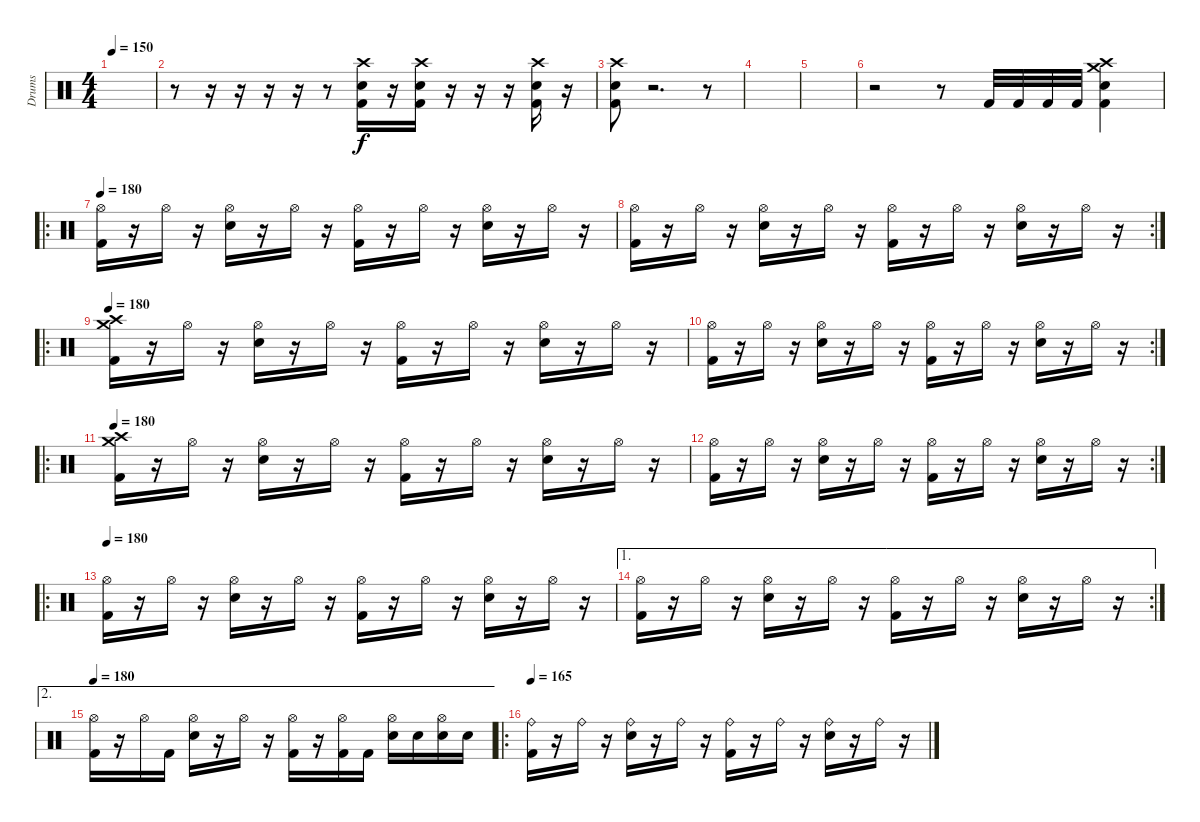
\track ("Drums" "Drums") {instrument percussion}
\staff {score}
\articulation defaults
\ts (4 4)
\tempo 150
\clef neutral
\ks c
|
r.8 r.16 r.16 r.16 r.16 r.8 ("Crash high (hit)" "Snare (hit) 2" "Kick (hit) 2").16 r.16 ("Crash high (hit)" "Snare (hit) 2" "Kick (hit) 2").16 r.16 r.16 r.16 ("Crash high (hit)" "Snare (hit) 2" "Kick (hit) 2").16 r.16 |
("Crash high (hit)" "Snare (hit) 2" "Kick (hit) 2").8 r.2{d} r.8 |
|
|
r.2 r.8 "Kick (hit) 2".32 "Kick (hit) 2".32 "Kick (hit) 2".32 "Kick (hit) 2".32 ("Crash medium (hit)" "Crash high (hit)" "Snare (hit) 2" "Kick (hit) 2").4 |
\ro
\tempo 180
("Hi-Hat (open)" "Kick (hit) 2").16 r.16 "Hi-Hat (open)".16 r.16 ("Hi-Hat (open)" "Snare (hit) 2").16 r.16 "Hi-Hat (open)".16 r.16 ("Hi-Hat (open)" "Kick (hit) 2").16 r.16 "Hi-Hat (open)".16 r.16 ("Hi-Hat (open)" "Snare (hit) 2").16 r.16 "Hi-Hat (open)".16 r.16 |
\rc 2
("Hi-Hat (open)" "Kick (hit) 2").16 r.16 "Hi-Hat (open)".16 r.16 ("Hi-Hat (open)" "Snare (hit) 2").16 r.16 "Hi-Hat (open)".16 r.16 ("Hi-Hat (open)" "Kick (hit) 2").16 r.16 "Hi-Hat (open)".16 r.16 ("Hi-Hat (open)" "Snare (hit) 2").16 r.16 "Hi-Hat (open)".16 r.16 |
\ro
\tempo 180
("Crash medium (hit)" "Crash high (hit)" "Kick (hit) 2").16 r.16 "Hi-Hat (open)".16 r.16 ("Hi-Hat (open)" "Snare (hit) 2").16 r.16 "Hi-Hat (open)".16 r.16 ("Hi-Hat (open)" "Kick (hit) 2").16 r.16 "Hi-Hat (open)".16 r.16 ("Hi-Hat (open)" "Snare (hit) 2").16 r.16 "Hi-Hat (open)".16 r.16 |
\rc 2
("Hi-Hat (open)" "Kick (hit) 2").16 r.16 "Hi-Hat (open)".16 r.16 ("Hi-Hat (open)" "Snare (hit) 2").16 r.16 "Hi-Hat (open)".16 r.16 ("Hi-Hat (open)" "Kick (hit) 2").16 r.16 "Hi-Hat (open)".16 r.16 ("Hi-Hat (open)" "Snare (hit) 2").16 r.16 "Hi-Hat (open)".16 r.16 |
\ro
\tempo 180
("Crash high (hit)" "Crash medium (hit)" "Kick (hit) 2").16 r.16 "Hi-Hat (open)".16 r.16 ("Hi-Hat (open)" "Snare (hit) 2").16 r.16 "Hi-Hat (open)".16 r.16 ("Hi-Hat (open)" "Kick (hit) 2").16 r.16 "Hi-Hat (open)".16 r.16 ("Hi-Hat (open)" "Snare (hit) 2").16 r.16 "Hi-Hat (open)".16 r.16 |
\rc 2
("Hi-Hat (open)" "Kick (hit) 2").16 r.16 "Hi-Hat (open)".16 r.16 ("Hi-Hat (open)" "Snare (hit) 2").16 r.16 "Hi-Hat (open)".16 r.16 ("Hi-Hat (open)" "Kick (hit) 2").16 r.16 "Hi-Hat (open)".16 r.16 ("Hi-Hat (open)" "Snare (hit) 2").16 r.16 "Hi-Hat (open)".16 r.16 |
\ro
\tempo 180
("Hi-Hat (open)" "Kick (hit) 2").16 r.16 "Hi-Hat (open)".16 r.16 ("Hi-Hat (open)" "Snare (hit) 2").16 r.16 "Hi-Hat (open)".16 r.16 ("Hi-Hat (open)" "Kick (hit) 2").16 r.16 "Hi-Hat (open)".16 r.16 ("Hi-Hat (open)" "Snare (hit) 2").16 r.16 "Hi-Hat (open)".16 r.16 |
\ae 1
\rc 2
("Hi-Hat (open)" "Kick (hit) 2").16 r.16 "Hi-Hat (open)".16 r.16 ("Hi-Hat (open)" "Snare (hit) 2").16 r.16 "Hi-Hat (open)".16 r.16 ("Hi-Hat (open)" "Kick (hit) 2").16 r.16 "Hi-Hat (open)".16 r.16 ("Hi-Hat (open)" "Snare (hit) 2").16 r.16 "Hi-Hat (open)".16 r.16 |
\ae 2
\tempo 180
("Hi-Hat (open)" "Kick (hit) 2").16 r.16 "Hi-Hat (open)".16 "Kick (hit) 2".16 ("Hi-Hat (open)" "Snare (hit) 2").16 r.16 "Hi-Hat (open)".16 r.16 ("Hi-Hat (open)" "Kick (hit) 2").16 r.16 ("Hi-Hat (open)" "Kick (hit) 2").16 "Kick (hit) 2".16 ("Hi-Hat (open)" "Snare (hit) 2").16 "Snare (hit) 2".16 ("Hi-Hat (open)" "Snare (hit) 2").16 "Snare (hit) 2".16 |
\ro
\tempo 165
("Ride (bell)" "Kick (hit) 2").16 r.16 "Ride (bell)".16 r.16 ("Ride (bell)" "Snare (hit) 2").16 r.16 "Ride (bell)".16 r.16 ("Ride (bell)" "Kick (hit) 2").16 r.16 "Ride (bell)".16 r.16 ("Ride (bell)" "Snare (hit) 2").16 r.16 "Ride (bell)".16 r.16
